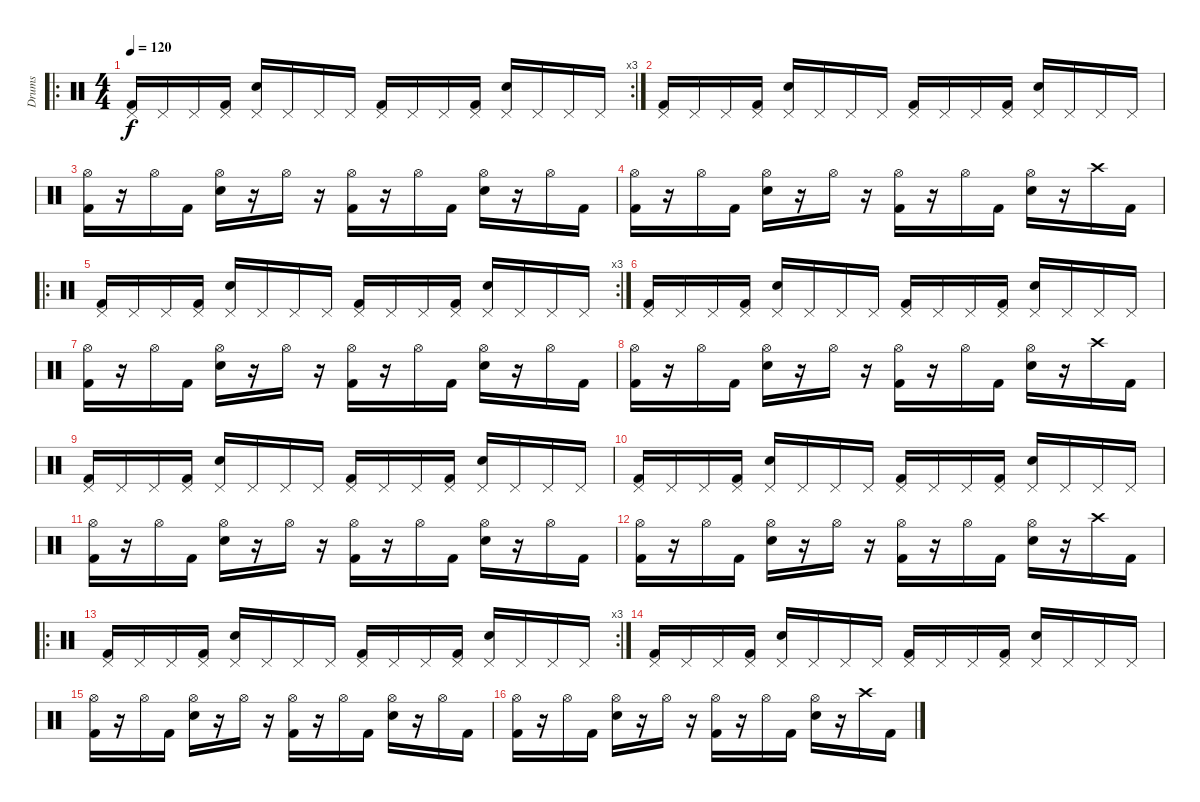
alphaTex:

\track ("Drums" "Drums") {instrument percussion}
\staff {score}
\articulation defaults
\ro
\rc 3
\ts (4 4)
\tempo 120
\clef neutral
\ks c
("Pedal Hi-Hat (hit)" "Kick (hit) 2").16{dy f volume 16} "Pedal Hi-Hat (hit)".16 "Pedal Hi-Hat (hit)".16 ("Pedal Hi-Hat (hit)" "Kick (hit) 2").16 ("Pedal Hi-Hat (hit)" "Electric Snare (hit)").16 "Pedal Hi-Hat (hit)".16 "Pedal Hi-Hat (hit)".16 "Pedal Hi-Hat (hit)".16 ("Pedal Hi-Hat (hit)" "Kick (hit) 2").16 "Pedal Hi-Hat (hit)".16 "Pedal Hi-Hat (hit)".16 ("Pedal Hi-Hat (hit)" "Kick (hit) 2").16 ("Pedal Hi-Hat (hit)" "Electric Snare (hit)").16 "Pedal Hi-Hat (hit)".16 "Pedal Hi-Hat (hit)".16 "Pedal Hi-Hat (hit)".16 |
("Pedal Hi-Hat (hit)" "Kick (hit) 2").16 "Pedal Hi-Hat (hit)".16 "Pedal Hi-Hat (hit)".16 ("Pedal Hi-Hat (hit)" "Kick (hit) 2").16 ("Pedal Hi-Hat (hit)" "Electric Snare (hit)").16 "Pedal Hi-Hat (hit)".16 "Pedal Hi-Hat (hit)".16 "Pedal Hi-Hat (hit)".16 ("Pedal Hi-Hat (hit)" "Kick (hit) 2").16 "Pedal Hi-Hat (hit)".16 "Pedal Hi-Hat (hit)".16 ("Pedal Hi-Hat (hit)" "Kick (hit) 2").16 ("Pedal Hi-Hat (hit)" "Electric Snare (hit)").16 "Pedal Hi-Hat (hit)".16 "Pedal Hi-Hat (hit)".16 "Pedal Hi-Hat (hit)".16 |
("Hi-Hat (open)" "Kick (hit) 2").16 r.16 "Hi-Hat (open)".16 "Kick (hit) 2".16 ("Hi-Hat (open)" "Electric Snare (hit)").16 r.16 "Hi-Hat (open)".16 r.16 ("Hi-Hat (open)" "Kick (hit) 2").16 r.16 "Hi-Hat (open)".16 "Kick (hit) 2".16 ("Hi-Hat (open)" "Electric Snare (hit)").16 r.16 "Hi-Hat (open)".16 "Kick (hit) 2".16 |
("Hi-Hat (open)" "Kick (hit) 2").16 r.16 "Hi-Hat (open)".16 "Kick (hit) 2".16 ("Hi-Hat (open)" "Electric Snare (hit)").16 r.16 "Hi-Hat (open)".16 r.16 ("Hi-Hat (open)" "Kick (hit) 2").16 r.16 "Hi-Hat (open)".16 "Kick (hit) 2".16 ("Hi-Hat (open)" "Electric Snare (hit)").16 r.16 "Crash high (hit)".16 "Kick (hit) 2".16 |
\ro
\rc 3
("Pedal Hi-Hat (hit)" "Kick (hit) 2").16{volume 16} "Pedal Hi-Hat (hit)".16 "Pedal Hi-Hat (hit)".16 ("Pedal Hi-Hat (hit)" "Kick (hit) 2").16 ("Pedal Hi-Hat (hit)" "Electric Snare (hit)").16 "Pedal Hi-Hat (hit)".16 "Pedal Hi-Hat (hit)".16 "Pedal Hi-Hat (hit)".16 ("Pedal Hi-Hat (hit)" "Kick (hit) 2").16 "Pedal Hi-Hat (hit)".16 "Pedal Hi-Hat (hit)".16 ("Pedal Hi-Hat (hit)" "Kick (hit) 2").16 ("Pedal Hi-Hat (hit)" "Electric Snare (hit)").16 "Pedal Hi-Hat (hit)".16 "Pedal Hi-Hat (hit)".16 "Pedal Hi-Hat (hit)".16 |
("Pedal Hi-Hat (hit)" "Kick (hit) 2").16 "Pedal Hi-Hat (hit)".16 "Pedal Hi-Hat (hit)".16 ("Pedal Hi-Hat (hit)" "Kick (hit) 2").16 ("Pedal Hi-Hat (hit)" "Electric Snare (hit)").16 "Pedal Hi-Hat (hit)".16 "Pedal Hi-Hat (hit)".16 "Pedal Hi-Hat (hit)".16 ("Pedal Hi-Hat (hit)" "Kick (hit) 2").16 "Pedal Hi-Hat (hit)".16 "Pedal Hi-Hat (hit)".16 ("Pedal Hi-Hat (hit)" "Kick (hit) 2").16 ("Pedal Hi-Hat (hit)" "Electric Snare (hit)").16 "Pedal Hi-Hat (hit)".16 "Pedal Hi-Hat (hit)".16 "Pedal Hi-Hat (hit)".16 |
("Hi-Hat (open)" "Kick (hit) 2").16 r.16 "Hi-Hat (open)".16 "Kick (hit) 2".16 ("Hi-Hat (open)" "Electric Snare (hit)").16 r.16 "Hi-Hat (open)".16 r.16 ("Hi-Hat (open)" "Kick (hit) 2").16 r.16 "Hi-Hat (open)".16 "Kick (hit) 2".16 ("Hi-Hat (open)" "Electric Snare (hit)").16 r.16 "Hi-Hat (open)".16 "Kick (hit) 2".16 |
("Hi-Hat (open)" "Kick (hit) 2").16 r.16 "Hi-Hat (open)".16 "Kick (hit) 2".16 ("Hi-Hat (open)" "Electric Snare (hit)").16 r.16 "Hi-Hat (open)".16 r.16 ("Hi-Hat (open)" "Kick (hit) 2").16 r.16 "Hi-Hat (open)".16 "Kick (hit) 2".16 ("Hi-Hat (open)" "Electric Snare (hit)").16 r.16 "Crash high (hit)".16 "Kick (hit) 2".16 |
("Pedal Hi-Hat (hit)" "Kick (hit) 2").16{volume 16} "Pedal Hi-Hat (hit)".16 "Pedal Hi-Hat (hit)".16 ("Pedal Hi-Hat (hit)" "Kick (hit) 2").16 ("Pedal Hi-Hat (hit)" "Electric Snare (hit)").16 "Pedal Hi-Hat (hit)".16 "Pedal Hi-Hat (hit)".16 "Pedal Hi-Hat (hit)".16 ("Pedal Hi-Hat (hit)" "Kick (hit) 2").16 "Pedal Hi-Hat (hit)".16 "Pedal Hi-Hat (hit)".16 ("Pedal Hi-Hat (hit)" "Kick (hit) 2").16 ("Pedal Hi-Hat (hit)" "Electric Snare (hit)").16 "Pedal Hi-Hat (hit)".16 "Pedal Hi-Hat (hit)".16 "Pedal Hi-Hat (hit)".16 |
("Pedal Hi-Hat (hit)" "Kick (hit) 2").16 "Pedal Hi-Hat (hit)".16 "Pedal Hi-Hat (hit)".16 ("Pedal Hi-Hat (hit)" "Kick (hit) 2").16 ("Pedal Hi-Hat (hit)" "Electric Snare (hit)").16 "Pedal Hi-Hat (hit)".16 "Pedal Hi-Hat (hit)".16 "Pedal Hi-Hat (hit)".16 ("Pedal Hi-Hat (hit)" "Kick (hit) 2").16 "Pedal Hi-Hat (hit)".16 "Pedal Hi-Hat (hit)".16 ("Pedal Hi-Hat (hit)" "Kick (hit) 2").16 ("Pedal Hi-Hat (hit)" "Electric Snare (hit)").16 "Pedal Hi-Hat (hit)".16 "Pedal Hi-Hat (hit)".16 "Pedal Hi-Hat (hit)".16 |
("Hi-Hat (open)" "Kick (hit) 2").16 r.16 "Hi-Hat (open)".16 "Kick (hit) 2".16 ("Hi-Hat (open)" "Electric Snare (hit)").16 r.16 "Hi-Hat (open)".16 r.16 ("Hi-Hat (open)" "Kick (hit) 2").16 r.16 "Hi-Hat (open)".16 "Kick (hit) 2".16 ("Hi-Hat (open)" "Electric Snare (hit)").16 r.16 "Hi-Hat (open)".16 "Kick (hit) 2".16 |
("Hi-Hat (open)" "Kick (hit) 2").16 r.16 "Hi-Hat (open)".16 "Kick (hit) 2".16 ("Hi-Hat (open)" "Electric Snare (hit)").16 r.16 "Hi-Hat (open)".16 r.16 ("Hi-Hat (open)" "Kick (hit) 2").16 r.16 "Hi-Hat (open)".16 "Kick (hit) 2".16 ("Hi-Hat (open)" "Electric Snare (hit)").16 r.16 "Crash high (hit)".16 "Kick (hit) 2".16 |
\ro
\rc 3
("Pedal Hi-Hat (hit)" "Kick (hit) 2").16{volume 16} "Pedal Hi-Hat (hit)".16 "Pedal Hi-Hat (hit)".16 ("Pedal Hi-Hat (hit)" "Kick (hit) 2").16 ("Pedal Hi-Hat (hit)" "Electric Snare (hit)").16 "Pedal Hi-Hat (hit)".16 "Pedal Hi-Hat (hit)".16 "Pedal Hi-Hat (hit)".16 ("Pedal Hi-Hat (hit)" "Kick (hit) 2").16 "Pedal Hi-Hat (hit)".16 "Pedal Hi-Hat (hit)".16 ("Pedal Hi-Hat (hit)" "Kick (hit) 2").16 ("Pedal Hi-Hat (hit)" "Electric Snare (hit)").16 "Pedal Hi-Hat (hit)".16 "Pedal Hi-Hat (hit)".16 "Pedal Hi-Hat (hit)".16 |
("Pedal Hi-Hat (hit)" "Kick (hit) 2").16 "Pedal Hi-Hat (hit)".16 "Pedal Hi-Hat (hit)".16 ("Pedal Hi-Hat (hit)" "Kick (hit) 2").16 ("Pedal Hi-Hat (hit)" "Electric Snare (hit)").16 "Pedal Hi-Hat (hit)".16 "Pedal Hi-Hat (hit)".16 "Pedal Hi-Hat (hit)".16 ("Pedal Hi-Hat (hit)" "Kick (hit) 2").16 "Pedal Hi-Hat (hit)".16 "Pedal Hi-Hat (hit)".16 ("Pedal Hi-Hat (hit)" "Kick (hit) 2").16 ("Pedal Hi-Hat (hit)" "Electric Snare (hit)").16 "Pedal Hi-Hat (hit)".16 "Pedal Hi-Hat (hit)".16 "Pedal Hi-Hat (hit)".16 |
("Hi-Hat (open)" "Kick (hit) 2").16 r.16 "Hi-Hat (open)".16 "Kick (hit) 2".16 ("Hi-Hat (open)" "Electric Snare (hit)").16 r.16 "Hi-Hat (open)".16 r.16 ("Hi-Hat (open)" "Kick (hit) 2").16 r.16 "Hi-Hat (open)".16 "Kick (hit) 2".16 ("Hi-Hat (open)" "Electric Snare (hit)").16 r.16 "Hi-Hat (open)".16 "Kick (hit) 2".16 |
("Hi-Hat (open)" "Kick (hit) 2").16 r.16 "Hi-Hat (open)".16 "Kick (hit) 2".16 ("Hi-Hat (open)" "Electric Snare (hit)").16 r.16 "Hi-Hat (open)".16 r.16 ("Hi-Hat (open)" "Kick (hit) 2").16 r.16 "Hi-Hat (open)".16 "Kick (hit) 2".16 ("Hi-Hat (open)" "Electric Snare (hit)").16 r.16 "Crash high (hit)".16 "Kick (hit) 2".16
